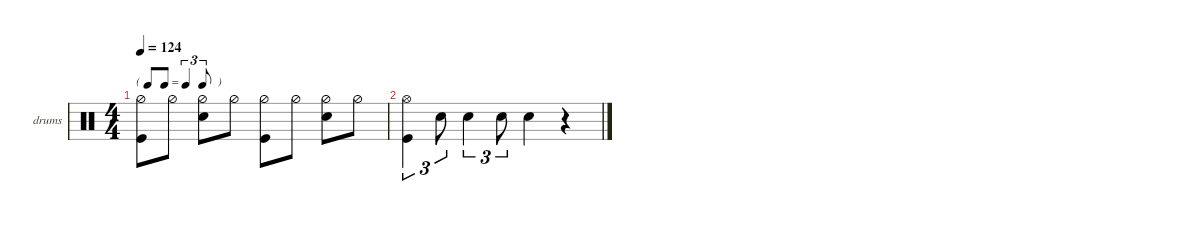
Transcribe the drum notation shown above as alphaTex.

\defaultSystemsLayout 4
\hideDynamics
\bracketExtendMode nobrackets
\firstSystemTrackNameOrientation horizontal
\otherSystemsTrackNameOrientation horizontal
\track ("drums" "drums") {instrument percussion}
\staff {score}
\articulation defaults
\ts (4 4)
\tf triplet8th
\tempo 124
\clef neutral
\scale
1.03155
\ks aminor
("Kick (hit)" "Hi-Hat (half)").8{dy mf} "Hi-Hat (half)".8 ("Hi-Hat (half)" "Snare (hit) 2").8 "Hi-Hat (half)".8 ("Kick (hit)" "Hi-Hat (half)").8 "Hi-Hat (half)".8 ("Hi-Hat (half)" "Snare (hit) 2").8 "Hi-Hat (half)".8 |
\scale
0.968454 ("Kick (hit)" "Hi-Hat (open)").4{tu (3 2)} "Snare (hit) 2".8{tu (3 2)} "Snare (hit) 2".4{tu (3 2)} "Snare (hit) 2".8{tu (3 2)} "Snare (hit) 2".4 r.4
